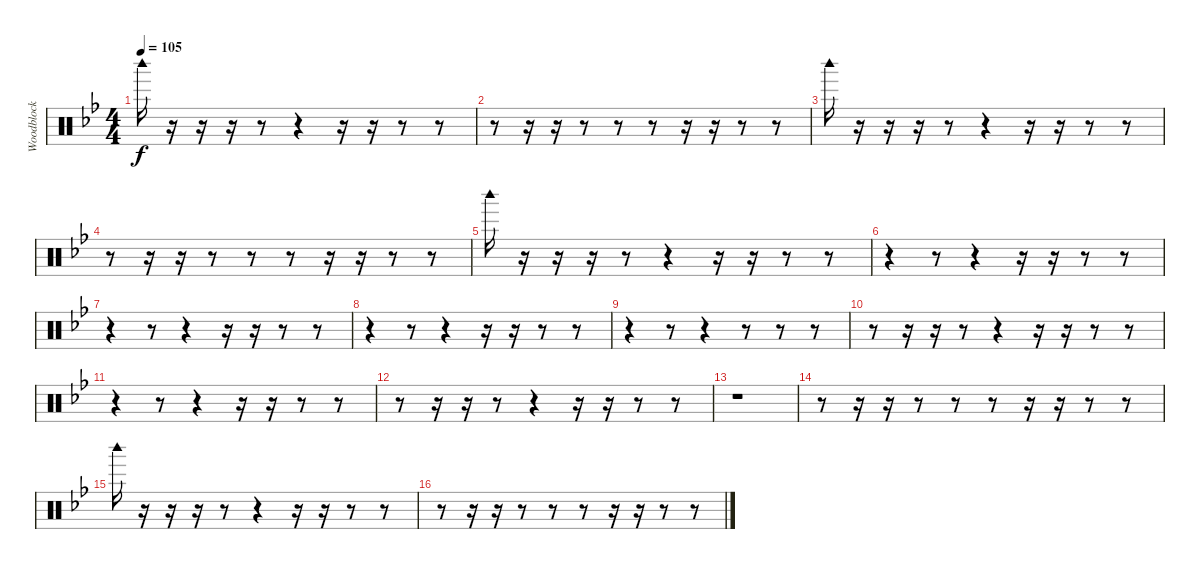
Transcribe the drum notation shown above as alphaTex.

\track ("Woodblock" "Woodblock") {instrument percussion}
\staff {score}
\articulation defaults
\ts (4 4)
\tempo 105
\clef neutral
\ks gminor "Woodblock high (hit)".16{dy f}
r.16 r.16 r.16 r.8 r.4 r.16 r.16 r.8 r.8 |
r.8 r.16 r.16 r.8 r.8 r.8 r.16 r.16 r.8 r.8 |
"Woodblock high (hit)".16 r.16 r.16 r.16 r.8 r.4 r.16 r.16 r.8 r.8 |
r.8 r.16 r.16 r.8 r.8 r.8 r.16 r.16 r.8 r.8 |
"Woodblock high (hit)".16 r.16 r.16 r.16 r.8 r.4 r.16 r.16 r.8 r.8 |
r.4 r.8 r.4 r.16 r.16 r.8 r.8 |
r.4 r.8 r.4 r.16 r.16 r.8 r.8 |
r.4 r.8 r.4 r.16 r.16 r.8 r.8 |
r.4 r.8 r.4 r.8 r.8 r.8 |
r.8 r.16 r.16 r.8 r.4 r.16 r.16 r.8 r.8 |
r.4 r.8 r.4 r.16 r.16 r.8 r.8 |
r.8 r.16 r.16 r.8 r.4 r.16 r.16 r.8 r.8 |
r.1 |
r.8 r.16 r.16 r.8 r.8 r.8 r.16 r.16 r.8 r.8 |
"Woodblock high (hit)".16 r.16 r.16 r.16 r.8 r.4 r.16 r.16 r.8 r.8 |
r.8 r.16 r.16 r.8 r.8 r.8 r.16 r.16 r.8 r.8
